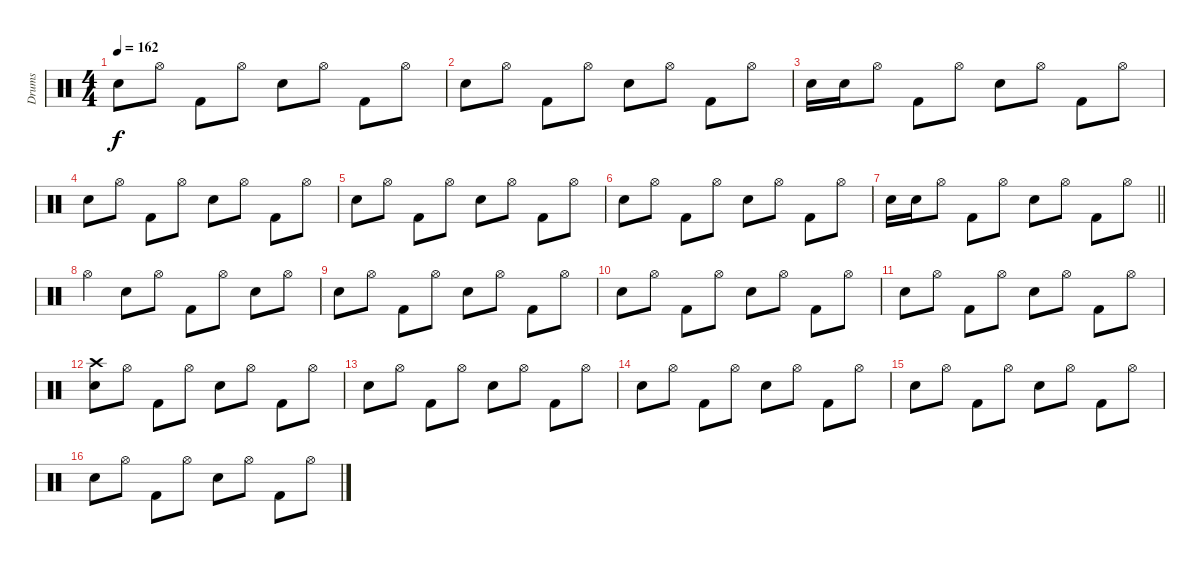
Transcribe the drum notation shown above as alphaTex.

\track ("Drums" "Drums") {instrument percussion}
\staff {score}
\articulation defaults
\ts (4 4)
\tempo 162
\clef neutral
\ks c "Electric Snare (hit)".8{dy f} "Hi-Hat (open)".8 "Kick (hit) 2".8 "Hi-Hat (open)".8 "Electric Snare (hit)".8 "Hi-Hat (open)".8 "Kick (hit) 2".8 "Hi-Hat (open)".8
|
"Electric Snare (hit)".8 "Hi-Hat (open)".8 "Kick (hit) 2".8 "Hi-Hat (open)".8 "Electric Snare (hit)".8 "Hi-Hat (open)".8 "Kick (hit) 2".8 "Hi-Hat (open)".8 |
"Electric Snare (hit)".16 "Electric Snare (hit)".16 "Hi-Hat (open)".8 "Kick (hit) 2".8 "Hi-Hat (open)".8 "Electric Snare (hit)".8 "Hi-Hat (open)".8 "Kick (hit) 2".8 "Hi-Hat (open)".8 |
"Electric Snare (hit)".8 "Hi-Hat (open)".8 "Kick (hit) 2".8 "Hi-Hat (open)".8 "Electric Snare (hit)".8 "Hi-Hat (open)".8 "Kick (hit) 2".8 "Hi-Hat (open)".8 |
"Electric Snare (hit)".8 "Hi-Hat (open)".8 "Kick (hit) 2".8 "Hi-Hat (open)".8 "Electric Snare (hit)".8 "Hi-Hat (open)".8 "Kick (hit) 2".8 "Hi-Hat (open)".8 |
"Electric Snare (hit)".8 "Hi-Hat (open)".8 "Kick (hit) 2".8 "Hi-Hat (open)".8 "Electric Snare (hit)".8 "Hi-Hat (open)".8 "Kick (hit) 2".8 "Hi-Hat (open)".8 |
\barLineRight lightlight "Electric Snare (hit)".16 "Electric Snare (hit)".16 "Hi-Hat (open)".8 "Kick (hit) 2".8 "Hi-Hat (open)".8 "Electric Snare (hit)".8 "Hi-Hat (open)".8 "Kick (hit) 2".8 "Hi-Hat (open)".8
|
"Hi-Hat (open)".4 "Electric Snare (hit)".8 "Hi-Hat (open)".8 "Kick (hit) 2".8 "Hi-Hat (open)".8 "Electric Snare (hit)".8 "Hi-Hat (open)".8 |
"Electric Snare (hit)".8 "Hi-Hat (open)".8 "Kick (hit) 2".8 "Hi-Hat (open)".8 "Electric Snare (hit)".8 "Hi-Hat (open)".8 "Kick (hit) 2".8 "Hi-Hat (open)".8 |
"Electric Snare (hit)".8 "Hi-Hat (open)".8 "Kick (hit) 2".8 "Hi-Hat (open)".8 "Electric Snare (hit)".8 "Hi-Hat (open)".8 "Kick (hit) 2".8 "Hi-Hat (open)".8 |
"Electric Snare (hit)".8 "Hi-Hat (open)".8 "Kick (hit) 2".8 "Hi-Hat (open)".8 "Electric Snare (hit)".8 "Hi-Hat (open)".8 "Kick (hit) 2".8 "Hi-Hat (open)".8 |
("Crash high (hit)" "Electric Snare (hit)").8 "Hi-Hat (open)".8 "Kick (hit) 2".8 "Hi-Hat (open)".8 "Electric Snare (hit)".8 "Hi-Hat (open)".8 "Kick (hit) 2".8 "Hi-Hat (open)".8 |
"Electric Snare (hit)".8 "Hi-Hat (open)".8 "Kick (hit) 2".8 "Hi-Hat (open)".8 "Electric Snare (hit)".8 "Hi-Hat (open)".8 "Kick (hit) 2".8 "Hi-Hat (open)".8 |
"Electric Snare (hit)".8 "Hi-Hat (open)".8 "Kick (hit) 2".8 "Hi-Hat (open)".8 "Electric Snare (hit)".8 "Hi-Hat (open)".8 "Kick (hit) 2".8 "Hi-Hat (open)".8 |
"Electric Snare (hit)".8 "Hi-Hat (open)".8 "Kick (hit) 2".8 "Hi-Hat (open)".8 "Electric Snare (hit)".8 "Hi-Hat (open)".8 "Kick (hit) 2".8 "Hi-Hat (open)".8 |
"Electric Snare (hit)".8 "Hi-Hat (open)".8 "Kick (hit) 2".8 "Hi-Hat (open)".8 "Electric Snare (hit)".8 "Hi-Hat (open)".8 "Kick (hit) 2".8 "Hi-Hat (open)".8
